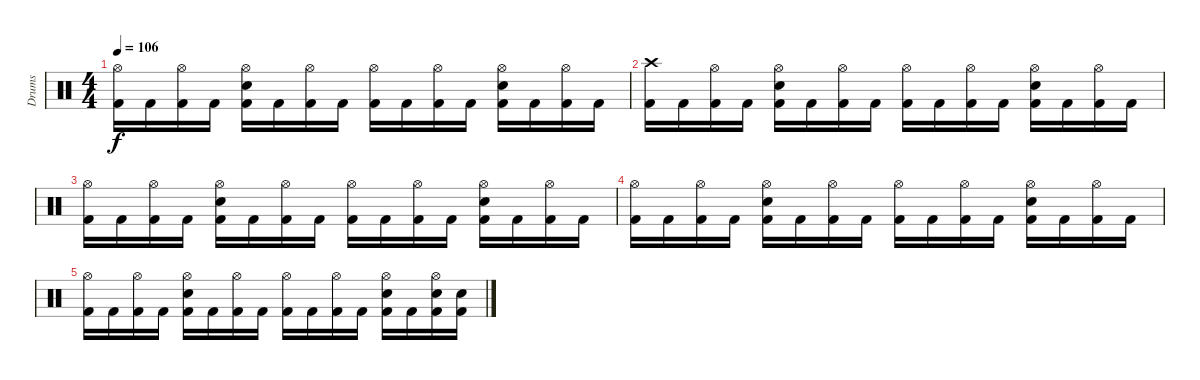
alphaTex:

\track ("Drums" "Drums") {instrument percussion}
\staff {score}
\articulation defaults
\ts (4 4)
\tempo 106
\clef neutral
\ks c
("Hi-Hat (open)" "Kick (hit) 2").16{dy f} "Kick (hit) 2".16 ("Hi-Hat (open)" "Kick (hit) 2").16 "Kick (hit) 2".16 ("Hi-Hat (open)" "Electric Snare (hit)" "Kick (hit) 2").16 "Kick (hit) 2".16 ("Hi-Hat (open)" "Kick (hit) 2").16 "Kick (hit) 2".16 ("Hi-Hat (open)" "Kick (hit) 2").16 "Kick (hit) 2".16 ("Hi-Hat (open)" "Kick (hit) 2").16 "Kick (hit) 2".16 ("Hi-Hat (open)" "Electric Snare (hit)" "Kick (hit) 2").16 "Kick (hit) 2".16 ("Hi-Hat (open)" "Kick (hit) 2").16 "Kick (hit) 2".16 |
("Crash high (hit)" "Kick (hit) 2").16 "Kick (hit) 2".16 ("Hi-Hat (open)" "Kick (hit) 2").16 "Kick (hit) 2".16 ("Hi-Hat (open)" "Electric Snare (hit)" "Kick (hit) 2").16 "Kick (hit) 2".16 ("Hi-Hat (open)" "Kick (hit) 2").16 "Kick (hit) 2".16 ("Hi-Hat (open)" "Kick (hit) 2").16 "Kick (hit) 2".16 ("Hi-Hat (open)" "Kick (hit) 2").16 "Kick (hit) 2".16 ("Hi-Hat (open)" "Electric Snare (hit)" "Kick (hit) 2").16 "Kick (hit) 2".16 ("Hi-Hat (open)" "Kick (hit) 2").16 "Kick (hit) 2".16 |
("Hi-Hat (open)" "Kick (hit) 2").16 "Kick (hit) 2".16 ("Hi-Hat (open)" "Kick (hit) 2").16 "Kick (hit) 2".16 ("Hi-Hat (open)" "Electric Snare (hit)" "Kick (hit) 2").16 "Kick (hit) 2".16 ("Hi-Hat (open)" "Kick (hit) 2").16 "Kick (hit) 2".16 ("Hi-Hat (open)" "Kick (hit) 2").16 "Kick (hit) 2".16 ("Hi-Hat (open)" "Kick (hit) 2").16 "Kick (hit) 2".16 ("Hi-Hat (open)" "Electric Snare (hit)" "Kick (hit) 2").16 "Kick (hit) 2".16 ("Hi-Hat (open)" "Kick (hit) 2").16 "Kick (hit) 2".16 |
("Hi-Hat (open)" "Kick (hit) 2").16 "Kick (hit) 2".16 ("Hi-Hat (open)" "Kick (hit) 2").16 "Kick (hit) 2".16 ("Hi-Hat (open)" "Electric Snare (hit)" "Kick (hit) 2").16 "Kick (hit) 2".16 ("Hi-Hat (open)" "Kick (hit) 2").16 "Kick (hit) 2".16 ("Hi-Hat (open)" "Kick (hit) 2").16 "Kick (hit) 2".16 ("Hi-Hat (open)" "Kick (hit) 2").16 "Kick (hit) 2".16 ("Hi-Hat (open)" "Electric Snare (hit)" "Kick (hit) 2").16 "Kick (hit) 2".16 ("Hi-Hat (open)" "Kick (hit) 2").16 "Kick (hit) 2".16 |
("Hi-Hat (open)" "Kick (hit) 2").16 "Kick (hit) 2".16 ("Hi-Hat (open)" "Kick (hit) 2").16 "Kick (hit) 2".16 ("Hi-Hat (open)" "Electric Snare (hit)" "Kick (hit) 2").16 "Kick (hit) 2".16 ("Hi-Hat (open)" "Kick (hit) 2").16 "Kick (hit) 2".16 ("Hi-Hat (open)" "Kick (hit) 2").16 "Kick (hit) 2".16 ("Hi-Hat (open)" "Kick (hit) 2").16 "Kick (hit) 2".16 ("Hi-Hat (open)" "Electric Snare (hit)" "Kick (hit) 2").16 "Kick (hit) 2".16 ("Hi-Hat (open)" "Electric Snare (hit)" "Kick (hit) 2").16 ("Electric Snare (hit)" "Kick (hit) 2").16
